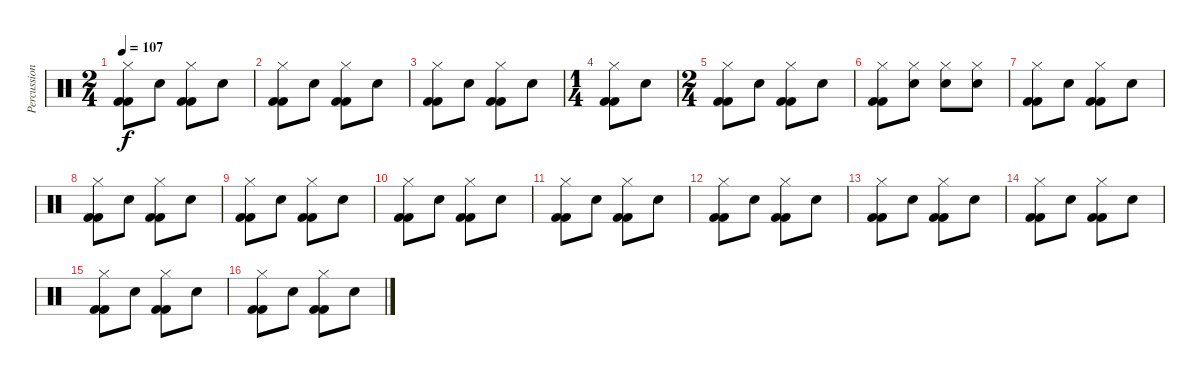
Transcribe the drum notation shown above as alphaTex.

\track ("Percussioni" "Percussion") {instrument percussion}
\staff {score}
\articulation defaults
\ts (2 4)
\tempo 107
\clef neutral
\ks c
("Hi-Hat (closed)" "Kick (hit) 2" "Kick (hit) 2").8{dy f} "Electric Snare (hit)".8 ("Hi-Hat (closed)" "Kick (hit) 2" "Kick (hit) 2").8 "Electric Snare (hit)".8 |
("Hi-Hat (closed)" "Kick (hit) 2" "Kick (hit) 2").8 "Electric Snare (hit)".8 ("Hi-Hat (closed)" "Kick (hit) 2" "Kick (hit) 2").8 "Electric Snare (hit)".8 |
("Hi-Hat (closed)" "Kick (hit) 2" "Kick (hit) 2").8 "Electric Snare (hit)".8 ("Hi-Hat (closed)" "Kick (hit) 2" "Kick (hit) 2").8 "Electric Snare (hit)".8 |
\ts (1 4)
("Hi-Hat (closed)" "Kick (hit) 2" "Kick (hit) 2").8 "Electric Snare (hit)".8 |
\ts (2 4)
("Hi-Hat (closed)" "Kick (hit) 2" "Kick (hit) 2").8 "Electric Snare (hit)".8 ("Hi-Hat (closed)" "Kick (hit) 2" "Kick (hit) 2").8 "Electric Snare (hit)".8 |
("Hi-Hat (closed)" "Kick (hit) 2" "Kick (hit) 2").8 ("Hi-Hat (closed)" "Electric Snare (hit)").8 ("Hi-Hat (closed)" "Electric Snare (hit)").8 ("Hi-Hat (closed)" "Electric Snare (hit)").8 |
("Hi-Hat (closed)" "Kick (hit) 2" "Kick (hit) 2").8 "Electric Snare (hit)".8 ("Hi-Hat (closed)" "Kick (hit) 2" "Kick (hit) 2").8 "Electric Snare (hit)".8 |
("Hi-Hat (closed)" "Kick (hit) 2" "Kick (hit) 2").8 "Electric Snare (hit)".8 ("Hi-Hat (closed)" "Kick (hit) 2" "Kick (hit) 2").8 "Electric Snare (hit)".8 |
("Hi-Hat (closed)" "Kick (hit) 2" "Kick (hit) 2").8 "Electric Snare (hit)".8 ("Hi-Hat (closed)" "Kick (hit) 2" "Kick (hit) 2").8 "Electric Snare (hit)".8 |
("Hi-Hat (closed)" "Kick (hit) 2" "Kick (hit) 2").8 "Electric Snare (hit)".8 ("Hi-Hat (closed)" "Kick (hit) 2" "Kick (hit) 2").8 "Electric Snare (hit)".8 |
("Hi-Hat (closed)" "Kick (hit) 2" "Kick (hit) 2").8 "Electric Snare (hit)".8 ("Hi-Hat (closed)" "Kick (hit) 2" "Kick (hit) 2").8 "Electric Snare (hit)".8 |
("Hi-Hat (closed)" "Kick (hit) 2" "Kick (hit) 2").8 "Electric Snare (hit)".8 ("Hi-Hat (closed)" "Kick (hit) 2" "Kick (hit) 2").8 "Electric Snare (hit)".8 |
("Hi-Hat (closed)" "Kick (hit) 2" "Kick (hit) 2").8 "Electric Snare (hit)".8 ("Hi-Hat (closed)" "Kick (hit) 2" "Kick (hit) 2").8 "Electric Snare (hit)".8 |
("Hi-Hat (closed)" "Kick (hit) 2" "Kick (hit) 2").8 "Electric Snare (hit)".8 ("Hi-Hat (closed)" "Kick (hit) 2" "Kick (hit) 2").8 "Electric Snare (hit)".8 |
("Hi-Hat (closed)" "Kick (hit) 2" "Kick (hit) 2").8 "Electric Snare (hit)".8 ("Hi-Hat (closed)" "Kick (hit) 2" "Kick (hit) 2").8 "Electric Snare (hit)".8 |
("Hi-Hat (closed)" "Kick (hit) 2" "Kick (hit) 2").8 "Electric Snare (hit)".8 ("Hi-Hat (closed)" "Kick (hit) 2" "Kick (hit) 2").8 "Electric Snare (hit)".8
